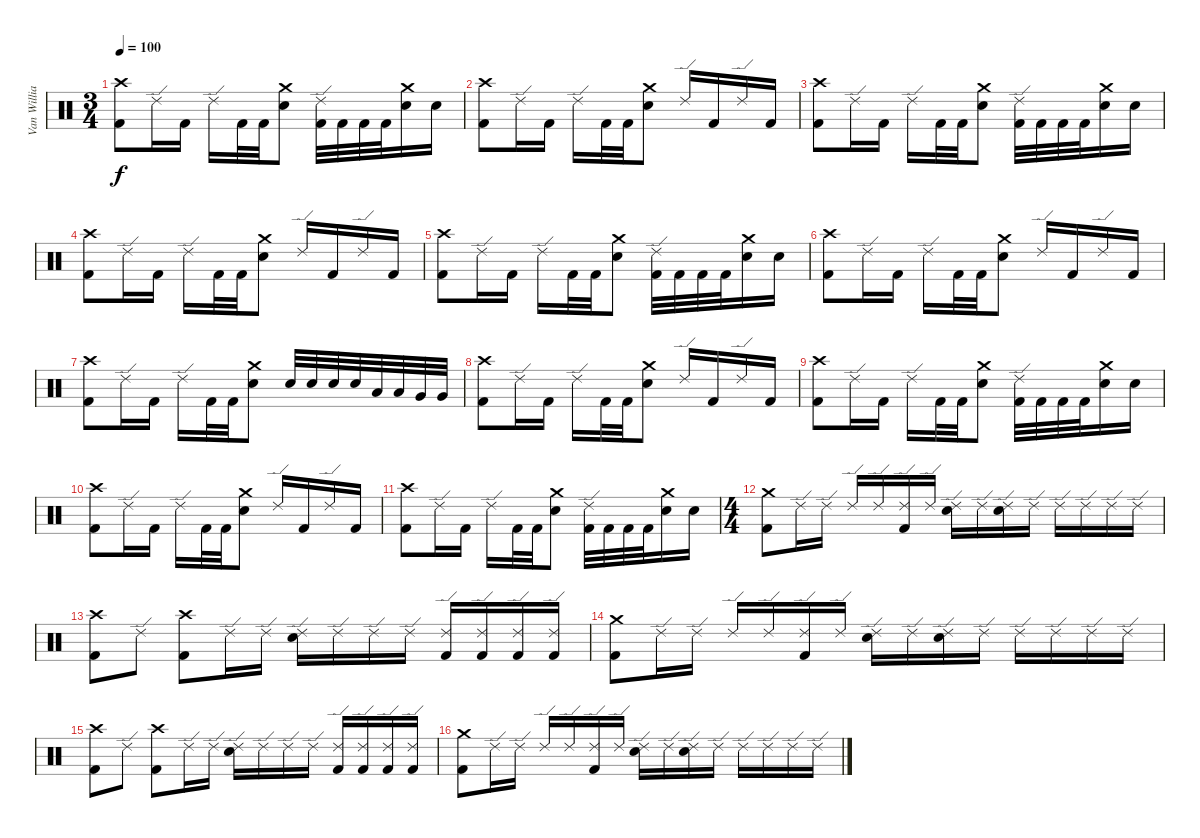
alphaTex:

\track ("Van Williams" "Van Willia") {instrument percussion}
\staff {score}
\articulation defaults
\ts (3 4)
\tempo 100
\clef neutral
\ks c
("Crash high (hit)" "Kick (hit) 2").8{dy f} "Ride (edge) 2".16 "Kick (hit) 2".16 "Ride (edge) 2".16 "Kick (hit) 2".32 "Kick (hit) 2".32 ("Crash medium (hit)" "Electric Snare (hit)").8 ("Ride (edge) 2" "Kick (hit) 2").32 "Kick (hit) 2".32 "Kick (hit) 2".32 "Kick (hit) 2".32 ("Crash medium (hit)" "Electric Snare (hit)").16 "Electric Snare (hit)".16 |
("Crash high (hit)" "Kick (hit) 2").8 "Ride (edge) 2".16 "Kick (hit) 2".16 "Ride (edge) 2".16 "Kick (hit) 2".32 "Kick (hit) 2".32 ("Crash medium (hit)" "Electric Snare (hit)").8 "Ride (edge) 2".16 "Kick (hit) 2".16 "Ride (edge) 2".16 "Kick (hit) 2".16 |
("Crash high (hit)" "Kick (hit) 2").8 "Ride (edge) 2".16 "Kick (hit) 2".16 "Ride (edge) 2".16 "Kick (hit) 2".32 "Kick (hit) 2".32 ("Crash medium (hit)" "Electric Snare (hit)").8 ("Ride (edge) 2" "Kick (hit) 2").32 "Kick (hit) 2".32 "Kick (hit) 2".32 "Kick (hit) 2".32 ("Crash medium (hit)" "Electric Snare (hit)").16 "Electric Snare (hit)".16 |
("Crash high (hit)" "Kick (hit) 2").8 "Ride (edge) 2".16 "Kick (hit) 2".16 "Ride (edge) 2".16 "Kick (hit) 2".32 "Kick (hit) 2".32 ("Crash medium (hit)" "Electric Snare (hit)").8 "Ride (edge) 2".16 "Kick (hit) 2".16 "Ride (edge) 2".16 "Kick (hit) 2".16 |
("Crash high (hit)" "Kick (hit) 2").8 "Ride (edge) 2".16 "Kick (hit) 2".16 "Ride (edge) 2".16 "Kick (hit) 2".32 "Kick (hit) 2".32 ("Crash medium (hit)" "Electric Snare (hit)").8 ("Ride (edge) 2" "Kick (hit) 2").32 "Kick (hit) 2".32 "Kick (hit) 2".32 "Kick (hit) 2".32 ("Crash medium (hit)" "Electric Snare (hit)").16 "Electric Snare (hit)".16 |
("Crash high (hit)" "Kick (hit) 2").8 "Ride (edge) 2".16 "Kick (hit) 2".16 "Ride (edge) 2".16 "Kick (hit) 2".32 "Kick (hit) 2".32 ("Crash medium (hit)" "Electric Snare (hit)").8 "Ride (edge) 2".16 "Kick (hit) 2".16 "Ride (edge) 2".16 "Kick (hit) 2".16 |
("Crash high (hit)" "Kick (hit) 2").8 "Ride (edge) 2".16 "Kick (hit) 2".16 "Ride (edge) 2".16 "Kick (hit) 2".32 "Kick (hit) 2".32 ("Crash medium (hit)" "Electric Snare (hit)").8 "Electric Snare (hit)".32 "Electric Snare (hit)".32 "Electric Snare (hit)".32 "Electric Snare (hit)".32 "Low Tom (hit)".32 "Low Tom (hit)".32 "Very Low Tom (hit)".32 "Very Low Tom (hit)".32 |
("Crash high (hit)" "Kick (hit) 2").8 "Ride (edge) 2".16 "Kick (hit) 2".16 "Ride (edge) 2".16 "Kick (hit) 2".32 "Kick (hit) 2".32 ("Crash medium (hit)" "Electric Snare (hit)").8 "Ride (edge) 2".16 "Kick (hit) 2".16 "Ride (edge) 2".16 "Kick (hit) 2".16 |
("Crash high (hit)" "Kick (hit) 2").8 "Ride (edge) 2".16 "Kick (hit) 2".16 "Ride (edge) 2".16 "Kick (hit) 2".32 "Kick (hit) 2".32 ("Crash medium (hit)" "Electric Snare (hit)").8 ("Ride (edge) 2" "Kick (hit) 2").32 "Kick (hit) 2".32 "Kick (hit) 2".32 "Kick (hit) 2".32 ("Crash medium (hit)" "Electric Snare (hit)").16 "Electric Snare (hit)".16 |
("Crash high (hit)" "Kick (hit) 2").8 "Ride (edge) 2".16 "Kick (hit) 2".16 "Ride (edge) 2".16 "Kick (hit) 2".32 "Kick (hit) 2".32 ("Crash medium (hit)" "Electric Snare (hit)").8 "Ride (edge) 2".16 "Kick (hit) 2".16 "Ride (edge) 2".16 "Kick (hit) 2".16 |
("Crash high (hit)" "Kick (hit) 2").8 "Ride (edge) 2".16 "Kick (hit) 2".16 "Ride (edge) 2".16 "Kick (hit) 2".32 "Kick (hit) 2".32 ("Crash medium (hit)" "Electric Snare (hit)").8 ("Ride (edge) 2" "Kick (hit) 2").32 "Kick (hit) 2".32 "Kick (hit) 2".32 "Kick (hit) 2".32 ("Crash medium (hit)" "Electric Snare (hit)").16 "Electric Snare (hit)".16 |
\ts (4 4)
("Crash medium (hit)" "Kick (hit) 2").8 "Ride (edge) 2".16 "Ride (edge) 2".16 "Ride (edge) 2".16 "Ride (edge) 2".16 ("Ride (edge) 2" "Kick (hit) 2").16 "Ride (edge) 2".16 ("Ride (edge) 2" "Electric Snare (hit)").16 "Ride (edge) 2".16 ("Ride (edge) 2" "Electric Snare (hit)").16 "Ride (edge) 2".16 "Ride (edge) 2".16 "Ride (edge) 2".16 "Ride (edge) 2".16 "Ride (edge) 2".16 |
("Crash high (hit)" "Kick (hit) 2").8 "Ride (edge) 2".8 ("Crash high (hit)" "Kick (hit) 2").8 "Ride (edge) 2".16 "Ride (edge) 2".16 ("Ride (edge) 2" "Electric Snare (hit)").16 "Ride (edge) 2".16 "Ride (edge) 2".16 "Ride (edge) 2".16 ("Ride (edge) 2" "Kick (hit) 2").16 ("Ride (edge) 2" "Kick (hit) 2").16 ("Ride (edge) 2" "Kick (hit) 2").16 ("Ride (edge) 2" "Kick (hit) 2").16 |
("Crash medium (hit)" "Kick (hit) 2").8 "Ride (edge) 2".16 "Ride (edge) 2".16 "Ride (edge) 2".16 "Ride (edge) 2".16 ("Ride (edge) 2" "Kick (hit) 2").16 "Ride (edge) 2".16 ("Ride (edge) 2" "Electric Snare (hit)").16 "Ride (edge) 2".16 ("Ride (edge) 2" "Electric Snare (hit)").16 "Ride (edge) 2".16 "Ride (edge) 2".16 "Ride (edge) 2".16 "Ride (edge) 2".16 "Ride (edge) 2".16 |
("Crash high (hit)" "Kick (hit) 2").8 "Ride (edge) 2".8 ("Crash high (hit)" "Kick (hit) 2").8 "Ride (edge) 2".16 "Ride (edge) 2".16 ("Ride (edge) 2" "Electric Snare (hit)").16 "Ride (edge) 2".16 "Ride (edge) 2".16 "Ride (edge) 2".16 ("Ride (edge) 2" "Kick (hit) 2").16 ("Ride (edge) 2" "Kick (hit) 2").16 ("Ride (edge) 2" "Kick (hit) 2").16 ("Ride (edge) 2" "Kick (hit) 2").16 |
("Crash medium (hit)" "Kick (hit) 2").8 "Ride (edge) 2".16 "Ride (edge) 2".16 "Ride (edge) 2".16 "Ride (edge) 2".16 ("Ride (edge) 2" "Kick (hit) 2").16 "Ride (edge) 2".16 ("Ride (edge) 2" "Electric Snare (hit)").16 "Ride (edge) 2".16 ("Ride (edge) 2" "Electric Snare (hit)").16 "Ride (edge) 2".16 "Ride (edge) 2".16 "Ride (edge) 2".16 "Ride (edge) 2".16 "Ride (edge) 2".16
